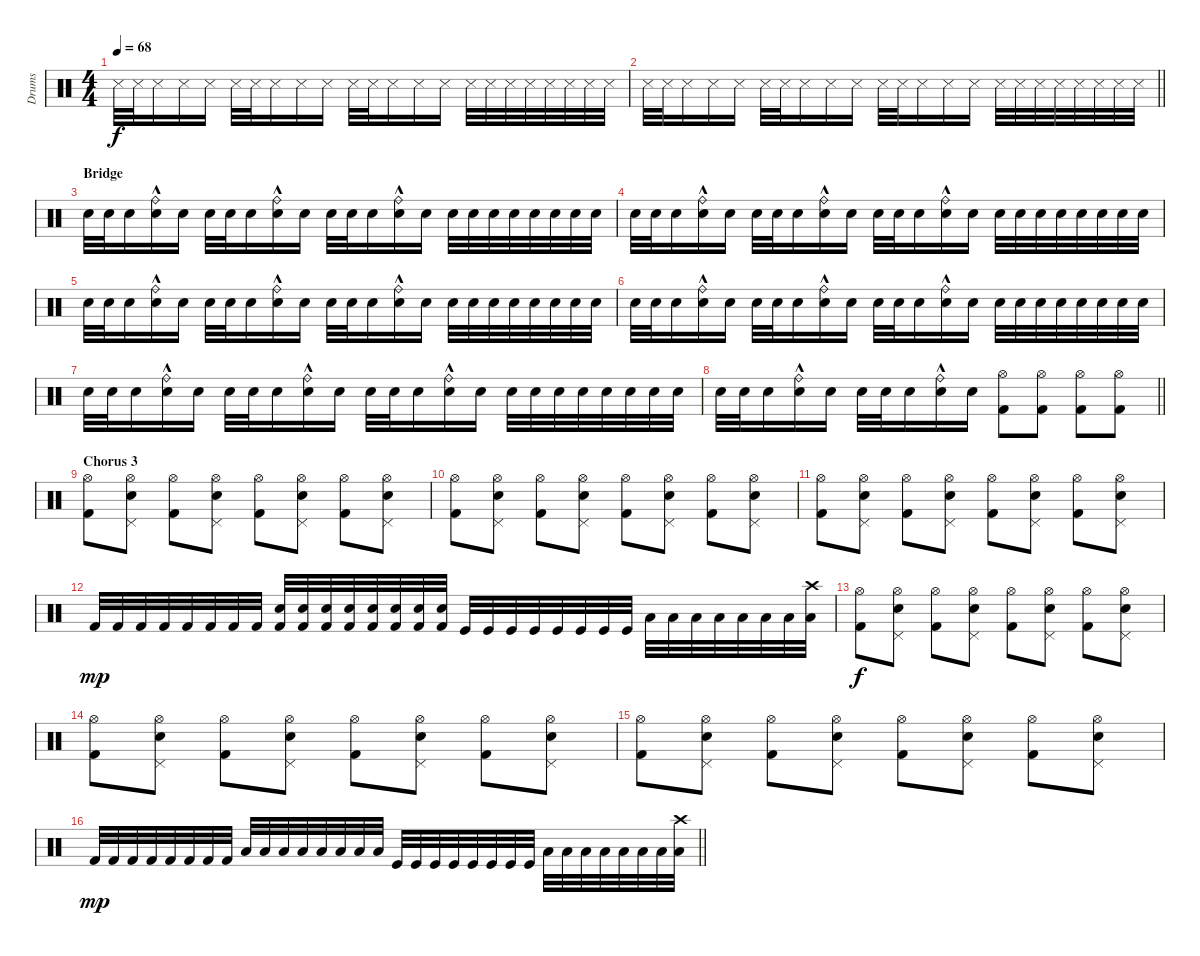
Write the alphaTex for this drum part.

\track ("Drums" "Drums") {instrument percussion}
\staff {score}
\articulation defaults
\ts (4 4)
\tempo 68
\clef neutral
\ks c "Snare (side stick) 3".32{dy f} "Snare (side stick) 3".32 "Snare (side stick) 3".16 "Snare (side stick) 3".16 "Snare (side stick) 3".16 "Snare (side stick) 3".32 "Snare (side stick) 3".32 "Snare (side stick) 3".16 "Snare (side stick) 3".16 "Snare (side stick) 3".16 "Snare (side stick) 3".32 "Snare (side stick) 3".32 "Snare (side stick) 3".16 "Snare (side stick) 3".16 "Snare (side stick) 3".16 "Snare (side stick) 3".32 "Snare (side stick) 3".32 "Snare (side stick) 3".32 "Snare (side stick) 3".32 "Snare (side stick) 3".32 "Snare (side stick) 3".32 "Snare (side stick) 3".32 "Snare (side stick) 3".32
|
\barLineRight lightlight "Snare (side stick) 3".32 "Snare (side stick) 3".32 "Snare (side stick) 3".16 "Snare (side stick) 3".16 "Snare (side stick) 3".16 "Snare (side stick) 3".32 "Snare (side stick) 3".32 "Snare (side stick) 3".16 "Snare (side stick) 3".16 "Snare (side stick) 3".16 "Snare (side stick) 3".32 "Snare (side stick) 3".32 "Snare (side stick) 3".16 "Snare (side stick) 3".16 "Snare (side stick) 3".16 "Snare (side stick) 3".32 "Snare (side stick) 3".32 "Snare (side stick) 3".32 "Snare (side stick) 3".32 "Snare (side stick) 3".32 "Snare (side stick) 3".32 "Snare (side stick) 3".32 "Snare (side stick) 3".32
|
\section ("" "Bridge")
"Electric Snare (hit)".32 "Electric Snare (hit)".32 "Electric Snare (hit)".16 ("Electric Snare (hit)" "Ride (bell)"{hac}).16 "Electric Snare (hit)".16 "Electric Snare (hit)".32 "Electric Snare (hit)".32 "Electric Snare (hit)".16 ("Electric Snare (hit)" "Ride (bell)"{hac}).16 "Electric Snare (hit)".16 "Electric Snare (hit)".32 "Electric Snare (hit)".32 "Electric Snare (hit)".16 ("Electric Snare (hit)" "Ride (bell)"{hac}).16 "Electric Snare (hit)".16 "Electric Snare (hit)".32 "Electric Snare (hit)".32 "Electric Snare (hit)".32 "Electric Snare (hit)".32 "Electric Snare (hit)".32 "Electric Snare (hit)".32 "Electric Snare (hit)".32 "Electric Snare (hit)".32 |
"Electric Snare (hit)".32 "Electric Snare (hit)".32 "Electric Snare (hit)".16 ("Electric Snare (hit)" "Ride (bell)"{hac}).16 "Electric Snare (hit)".16 "Electric Snare (hit)".32 "Electric Snare (hit)".32 "Electric Snare (hit)".16 ("Electric Snare (hit)" "Ride (bell)"{hac}).16 "Electric Snare (hit)".16 "Electric Snare (hit)".32 "Electric Snare (hit)".32 "Electric Snare (hit)".16 ("Electric Snare (hit)" "Ride (bell)"{hac}).16 "Electric Snare (hit)".16 "Electric Snare (hit)".32 "Electric Snare (hit)".32 "Electric Snare (hit)".32 "Electric Snare (hit)".32 "Electric Snare (hit)".32 "Electric Snare (hit)".32 "Electric Snare (hit)".32 "Electric Snare (hit)".32 |
"Electric Snare (hit)".32 "Electric Snare (hit)".32 "Electric Snare (hit)".16 ("Electric Snare (hit)" "Ride (bell)"{hac}).16 "Electric Snare (hit)".16 "Electric Snare (hit)".32 "Electric Snare (hit)".32 "Electric Snare (hit)".16 ("Electric Snare (hit)" "Ride (bell)"{hac}).16 "Electric Snare (hit)".16 "Electric Snare (hit)".32 "Electric Snare (hit)".32 "Electric Snare (hit)".16 ("Electric Snare (hit)" "Ride (bell)"{hac}).16 "Electric Snare (hit)".16 "Electric Snare (hit)".32 "Electric Snare (hit)".32 "Electric Snare (hit)".32 "Electric Snare (hit)".32 "Electric Snare (hit)".32 "Electric Snare (hit)".32 "Electric Snare (hit)".32 "Electric Snare (hit)".32 |
"Electric Snare (hit)".32 "Electric Snare (hit)".32 "Electric Snare (hit)".16 ("Electric Snare (hit)" "Ride (bell)"{hac}).16 "Electric Snare (hit)".16 "Electric Snare (hit)".32 "Electric Snare (hit)".32 "Electric Snare (hit)".16 ("Electric Snare (hit)" "Ride (bell)"{hac}).16 "Electric Snare (hit)".16 "Electric Snare (hit)".32 "Electric Snare (hit)".32 "Electric Snare (hit)".16 ("Electric Snare (hit)" "Ride (bell)"{hac}).16 "Electric Snare (hit)".16 "Electric Snare (hit)".32 "Electric Snare (hit)".32 "Electric Snare (hit)".32 "Electric Snare (hit)".32 "Electric Snare (hit)".32 "Electric Snare (hit)".32 "Electric Snare (hit)".32 "Electric Snare (hit)".32 |
"Electric Snare (hit)".32 "Electric Snare (hit)".32 "Electric Snare (hit)".16 ("Electric Snare (hit)" "Ride (bell)"{hac}).16 "Electric Snare (hit)".16 "Electric Snare (hit)".32 "Electric Snare (hit)".32 "Electric Snare (hit)".16 ("Electric Snare (hit)" "Ride (bell)"{hac}).16 "Electric Snare (hit)".16 "Electric Snare (hit)".32 "Electric Snare (hit)".32 "Electric Snare (hit)".16 ("Electric Snare (hit)" "Ride (bell)"{hac}).16 "Electric Snare (hit)".16 "Electric Snare (hit)".32 "Electric Snare (hit)".32 "Electric Snare (hit)".32 "Electric Snare (hit)".32 "Electric Snare (hit)".32 "Electric Snare (hit)".32 "Electric Snare (hit)".32 "Electric Snare (hit)".32 |
\barLineRight lightlight "Electric Snare (hit)".32 "Electric Snare (hit)".32 "Electric Snare (hit)".16
("Electric Snare (hit)" "Ride (bell)"{hac}).16 "Electric Snare (hit)".16 "Electric Snare (hit)".32 "Electric Snare (hit)".32 "Electric Snare (hit)".16 ("Electric Snare (hit)" "Ride (bell)"{hac}).16 "Electric Snare (hit)".16 ("Kick (hit) 2" "Hi-Hat (open)").8 ("Kick (hit) 2" "Hi-Hat (open)").8 ("Kick (hit) 2" "Hi-Hat (open)").8 ("Kick (hit) 2" "Hi-Hat (open)").8 |
\section ("" "Chorus 3")
("Kick (hit) 2" "Hi-Hat (open)").8 ("Snare (hit) 2" "Pedal Hi-Hat (hit)" "Hi-Hat (open)").8 ("Kick (hit) 2" "Hi-Hat (open)").8 ("Snare (hit) 2" "Pedal Hi-Hat (hit)" "Hi-Hat (open)").8 ("Kick (hit) 2" "Hi-Hat (open)").8 ("Snare (hit) 2" "Pedal Hi-Hat (hit)" "Hi-Hat (open)").8 ("Kick (hit) 2" "Hi-Hat (open)").8 ("Snare (hit) 2" "Pedal Hi-Hat (hit)" "Hi-Hat (open)").8 |
("Kick (hit) 2" "Hi-Hat (open)").8 ("Snare (hit) 2" "Pedal Hi-Hat (hit)" "Hi-Hat (open)").8 ("Kick (hit) 2" "Hi-Hat (open)").8 ("Snare (hit) 2" "Pedal Hi-Hat (hit)" "Hi-Hat (open)").8 ("Kick (hit) 2" "Hi-Hat (open)").8 ("Snare (hit) 2" "Pedal Hi-Hat (hit)" "Hi-Hat (open)").8 ("Kick (hit) 2" "Hi-Hat (open)").8 ("Snare (hit) 2" "Pedal Hi-Hat (hit)" "Hi-Hat (open)").8 |
("Kick (hit) 2" "Hi-Hat (open)").8 ("Snare (hit) 2" "Pedal Hi-Hat (hit)" "Hi-Hat (open)").8 ("Kick (hit) 2" "Hi-Hat (open)").8 ("Snare (hit) 2" "Pedal Hi-Hat (hit)" "Hi-Hat (open)").8 ("Kick (hit) 2" "Hi-Hat (open)").8 ("Snare (hit) 2" "Pedal Hi-Hat (hit)" "Hi-Hat (open)").8 ("Kick (hit) 2" "Hi-Hat (open)").8 ("Snare (hit) 2" "Pedal Hi-Hat (hit)" "Hi-Hat (open)").8 |
"Kick (hit) 2".32{dy mp} "Kick (hit) 2".32 "Kick (hit) 2".32 "Kick (hit) 2".32 "Kick (hit) 2".32 "Kick (hit) 2".32 "Kick (hit) 2".32 "Kick (hit) 2".32 ("Snare (hit) 2" "Kick (hit) 2").32 ("Snare (hit) 2" "Kick (hit) 2").32 ("Snare (hit) 2" "Kick (hit) 2").32 ("Snare (hit) 2" "Kick (hit) 2").32 ("Snare (hit) 2" "Kick (hit) 2").32 ("Snare (hit) 2" "Kick (hit) 2").32 ("Snare (hit) 2" "Kick (hit) 2").32 ("Snare (hit) 2" "Kick (hit) 2").32 "Kick (hit)".32 "Kick (hit)".32 "Kick (hit)".32 "Kick (hit)".32 "Kick (hit)".32 "Kick (hit)".32 "Kick (hit)".32 "Kick (hit)".32 "Low Tom (hit)".32 "Low Tom (hit)".32 "Low Tom (hit)".32 "Low Tom (hit)".32 "Low Tom (hit)".32 "Low Tom (hit)".32 "Low Tom (hit)".32 ("Low Tom (hit)" "Crash high (hit)").32 |
("Kick (hit) 2" "Hi-Hat (open)").8{dy f} ("Snare (hit) 2" "Pedal Hi-Hat (hit)" "Hi-Hat (open)").8 ("Kick (hit) 2" "Hi-Hat (open)").8 ("Snare (hit) 2" "Pedal Hi-Hat (hit)" "Hi-Hat (open)").8 ("Kick (hit) 2" "Hi-Hat (open)").8 ("Snare (hit) 2" "Pedal Hi-Hat (hit)" "Hi-Hat (open)").8 ("Kick (hit) 2" "Hi-Hat (open)").8 ("Snare (hit) 2" "Pedal Hi-Hat (hit)" "Hi-Hat (open)").8 |
("Kick (hit) 2" "Hi-Hat (open)").8 ("Snare (hit) 2" "Pedal Hi-Hat (hit)" "Hi-Hat (open)").8 ("Kick (hit) 2" "Hi-Hat (open)").8 ("Snare (hit) 2" "Pedal Hi-Hat (hit)" "Hi-Hat (open)").8 ("Kick (hit) 2" "Hi-Hat (open)").8 ("Snare (hit) 2" "Pedal Hi-Hat (hit)" "Hi-Hat (open)").8 ("Kick (hit) 2" "Hi-Hat (open)").8 ("Snare (hit) 2" "Pedal Hi-Hat (hit)" "Hi-Hat (open)").8 |
("Kick (hit) 2" "Hi-Hat (open)").8 ("Snare (hit) 2" "Pedal Hi-Hat (hit)" "Hi-Hat (open)").8 ("Kick (hit) 2" "Hi-Hat (open)").8 ("Snare (hit) 2" "Pedal Hi-Hat (hit)" "Hi-Hat (open)").8 ("Kick (hit) 2" "Hi-Hat (open)").8 ("Snare (hit) 2" "Pedal Hi-Hat (hit)" "Hi-Hat (open)").8 ("Kick (hit) 2" "Hi-Hat (open)").8 ("Snare (hit) 2" "Pedal Hi-Hat (hit)" "Hi-Hat (open)").8 |
\barLineRight lightlight "Kick (hit) 2".32{dy mp} "Kick (hit) 2".32 "Kick (hit) 2".32 "Kick (hit) 2".32 "Kick (hit) 2".32 "Kick (hit) 2".32 "Kick (hit) 2".32 "Kick (hit) 2".32 "Low Tom (hit)".32 "Low Tom (hit)".32 "Low Tom (hit)".32 "Low Tom (hit)".32 "Low Tom (hit)".32 "Low Tom (hit)".32 "Low Tom (hit)".32 "Low Tom (hit)".32 "Kick (hit)".32 "Kick (hit)".32 "Kick (hit)".32 "Kick (hit)".32 "Kick (hit)".32 "Kick (hit)".32 "Kick (hit)".32 "Kick (hit)".32 "Low Tom (hit)".32 "Low Tom (hit)".32 "Low Tom (hit)".32 "Low Tom (hit)".32 "Low Tom (hit)".32 "Low Tom (hit)".32 "Low Tom (hit)".32
("Low Tom (hit)" "Crash high (hit)").32
